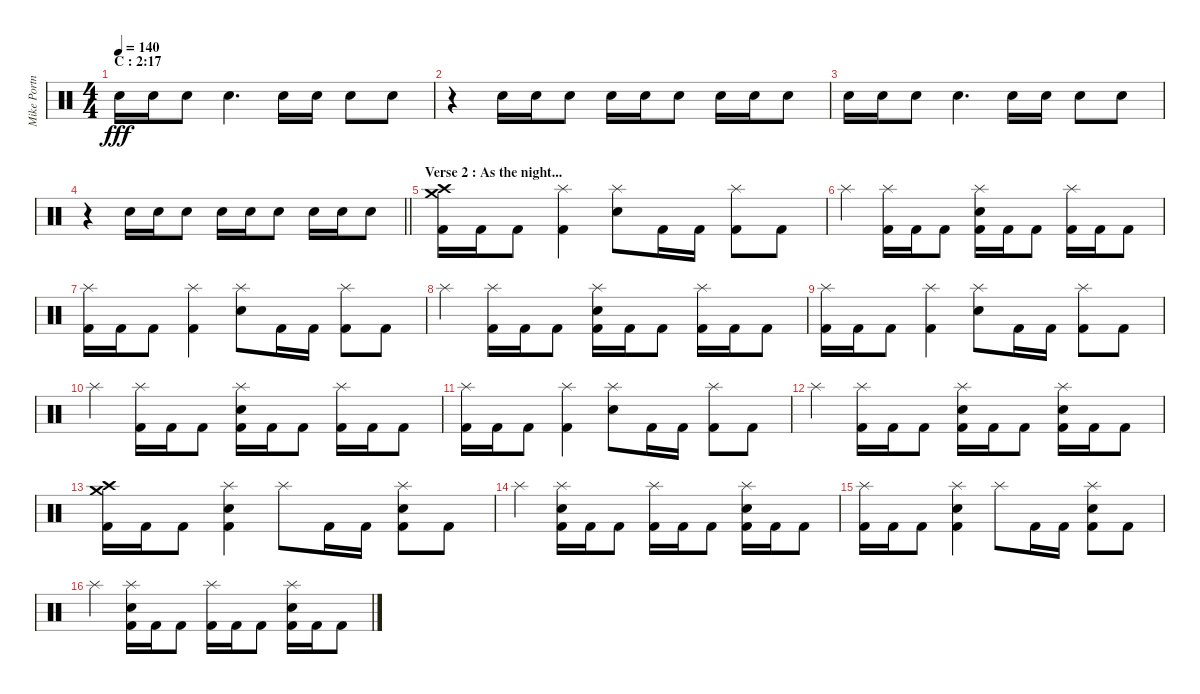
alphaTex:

\track ("Mike Portnoy" "Mike Portn") {instrument percussion}
\staff {score}
\articulation defaults
\ts (4 4)
\section ("" "C : 2:17")
\tempo 140
\clef neutral
\ks c "Snare (hit) 2".16{dy fff} "Snare (hit) 2".16 "Snare (hit) 2".8 "Snare (hit) 2".4{d} "Snare (hit) 2".16 "Snare (hit) 2".16 "Snare (hit) 2".8 "Snare (hit) 2".8
|
r.4 "Snare (hit) 2".16 "Snare (hit) 2".16 "Snare (hit) 2".8 "Snare (hit) 2".16 "Snare (hit) 2".16 "Snare (hit) 2".8 "Snare (hit) 2".16 "Snare (hit) 2".16 "Snare (hit) 2".8 |
"Snare (hit) 2".16 "Snare (hit) 2".16 "Snare (hit) 2".8 "Snare (hit) 2".4{d} "Snare (hit) 2".16 "Snare (hit) 2".16 "Snare (hit) 2".8 "Snare (hit) 2".8 |
\barLineRight lightlight
r.4 "Snare (hit) 2".16 "Snare (hit) 2".16 "Snare (hit) 2".8 "Snare (hit) 2".16 "Snare (hit) 2".16 "Snare (hit) 2".8 "Snare (hit) 2".16 "Snare (hit) 2".16 "Snare (hit) 2".8 |
\section ("" "Verse 2 : As the night...")
("Crash medium (hit)" "Crash high (hit)" "Kick (hit) 2").16 "Kick (hit) 2".16 "Kick (hit) 2".8 ("Splash (hit)" "Kick (hit) 2").4 ("Splash (hit)" "Snare (hit) 2").8 "Kick (hit) 2".16 "Kick (hit) 2".16 ("Splash (hit)" "Kick (hit) 2").8 "Kick (hit) 2".8 |
"Splash (hit)".4 ("Splash (hit)" "Kick (hit) 2").16 "Kick (hit) 2".16 "Kick (hit) 2".8 ("Splash (hit)" "Snare (hit) 2" "Kick (hit) 2").16 "Kick (hit) 2".16 "Kick (hit) 2".8 ("Splash (hit)" "Kick (hit) 2").16 "Kick (hit) 2".16 "Kick (hit) 2".8 |
("Splash (hit)" "Kick (hit) 2").16 "Kick (hit) 2".16 "Kick (hit) 2".8 ("Splash (hit)" "Kick (hit) 2").4 ("Splash (hit)" "Snare (hit) 2").8 "Kick (hit) 2".16 "Kick (hit) 2".16 ("Splash (hit)" "Kick (hit) 2").8 "Kick (hit) 2".8 |
"Splash (hit)".4 ("Splash (hit)" "Kick (hit) 2").16 "Kick (hit) 2".16 "Kick (hit) 2".8 ("Splash (hit)" "Snare (hit) 2" "Kick (hit) 2").16 "Kick (hit) 2".16 "Kick (hit) 2".8 ("Splash (hit)" "Kick (hit) 2").16 "Kick (hit) 2".16 "Kick (hit) 2".8 |
("Splash (hit)" "Kick (hit) 2").16 "Kick (hit) 2".16 "Kick (hit) 2".8 ("Splash (hit)" "Kick (hit) 2").4 ("Splash (hit)" "Snare (hit) 2").8 "Kick (hit) 2".16 "Kick (hit) 2".16 ("Splash (hit)" "Kick (hit) 2").8 "Kick (hit) 2".8 |
"Splash (hit)".4 ("Splash (hit)" "Kick (hit) 2").16 "Kick (hit) 2".16 "Kick (hit) 2".8 ("Splash (hit)" "Snare (hit) 2" "Kick (hit) 2").16 "Kick (hit) 2".16 "Kick (hit) 2".8 ("Splash (hit)" "Kick (hit) 2").16 "Kick (hit) 2".16 "Kick (hit) 2".8 |
("Splash (hit)" "Kick (hit) 2").16 "Kick (hit) 2".16 "Kick (hit) 2".8 ("Splash (hit)" "Kick (hit) 2").4 ("Splash (hit)" "Snare (hit) 2").8 "Kick (hit) 2".16 "Kick (hit) 2".16 ("Splash (hit)" "Kick (hit) 2").8 "Kick (hit) 2".8 |
"Splash (hit)".4 ("Splash (hit)" "Kick (hit) 2").16 "Kick (hit) 2".16 "Kick (hit) 2".8 ("Splash (hit)" "Snare (hit) 2" "Kick (hit) 2").16 "Kick (hit) 2".16 "Kick (hit) 2".8 ("Splash (hit)" "Snare (hit) 2" "Kick (hit) 2").16 "Kick (hit) 2".16 "Kick (hit) 2".8 |
("Crash high (hit)" "Crash medium (hit)" "Kick (hit) 2").16 "Kick (hit) 2".16 "Kick (hit) 2".8 ("Splash (hit)" "Snare (hit) 2" "Kick (hit) 2").4 "Splash (hit)".8 "Kick (hit) 2".16 "Kick (hit) 2".16 ("Splash (hit)" "Snare (hit) 2" "Kick (hit) 2").8 "Kick (hit) 2".8 |
"Splash (hit)".4 ("Splash (hit)" "Snare (hit) 2" "Kick (hit) 2").16 "Kick (hit) 2".16 "Kick (hit) 2".8 ("Splash (hit)" "Kick (hit) 2").16 "Kick (hit) 2".16 "Kick (hit) 2".8 ("Splash (hit)" "Snare (hit) 2" "Kick (hit) 2").16 "Kick (hit) 2".16 "Kick (hit) 2".8 |
("Splash (hit)" "Kick (hit) 2").16 "Kick (hit) 2".16 "Kick (hit) 2".8 ("Splash (hit)" "Snare (hit) 2" "Kick (hit) 2").4 "Splash (hit)".8 "Kick (hit) 2".16 "Kick (hit) 2".16 ("Splash (hit)" "Snare (hit) 2" "Kick (hit) 2").8 "Kick (hit) 2".8 |
"Splash (hit)".4 ("Splash (hit)" "Snare (hit) 2" "Kick (hit) 2").16 "Kick (hit) 2".16 "Kick (hit) 2".8 ("Splash (hit)" "Kick (hit) 2").16 "Kick (hit) 2".16 "Kick (hit) 2".8 ("Splash (hit)" "Snare (hit) 2" "Kick (hit) 2").16 "Kick (hit) 2".16 "Kick (hit) 2".8
